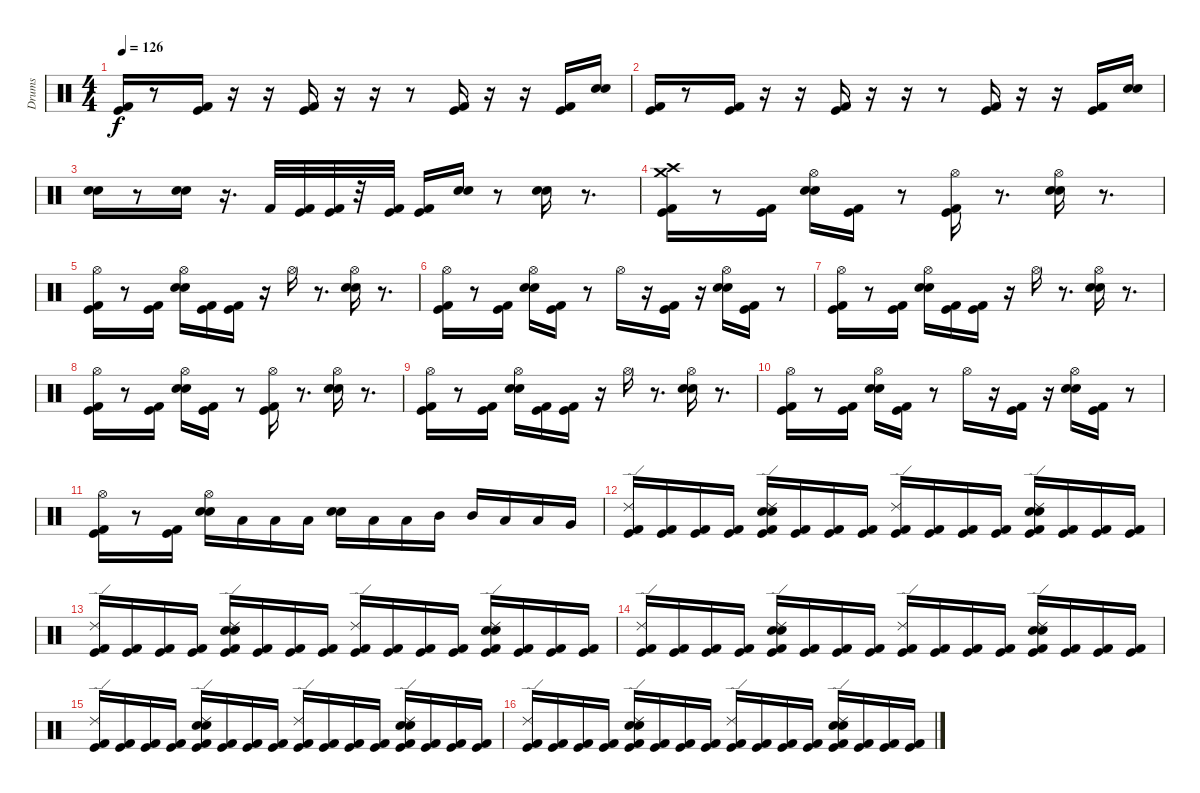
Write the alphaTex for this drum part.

\track ("Drums" "Drums") {instrument percussion}
\staff {score}
\articulation defaults
\ts (4 4)
\tempo 126
\clef neutral
\ks c
("Kick (hit) 2" "Kick (hit)").16{dy f} r.8 ("Kick (hit) 2" "Kick (hit)").16 r.16 r.16 ("Kick (hit) 2" "Kick (hit)").16 r.16 r.16 r.8 ("Kick (hit) 2" "Kick (hit)").16 r.16 r.16 ("Kick (hit) 2" "Kick (hit)").16 ("Electric Snare (hit)" "Snare (hit) 2").16 |
("Kick (hit) 2" "Kick (hit)").16 r.8 ("Kick (hit) 2" "Kick (hit)").16 r.16 r.16 ("Kick (hit) 2" "Kick (hit)").16 r.16 r.16 r.8 ("Kick (hit) 2" "Kick (hit)").16 r.16 r.16 ("Kick (hit) 2" "Kick (hit)").16 ("Electric Snare (hit)" "Snare (hit) 2").16 |
("Electric Snare (hit)" "Snare (hit) 2").16 r.8 ("Electric Snare (hit)" "Snare (hit) 2").16 r.16{d} "Kick (hit) 2".32 ("Kick (hit) 2" "Kick (hit)").32 ("Kick (hit) 2" "Kick (hit)").32 r.32 ("Kick (hit) 2" "Kick (hit)").32 ("Kick (hit) 2" "Kick (hit)").16 ("Electric Snare (hit)" "Snare (hit) 2").16 r.8 ("Electric Snare (hit)" "Snare (hit) 2").16 r.8{d} |
("Crash high (hit)" "Crash medium (hit)" "Kick (hit) 2" "Kick (hit)").16 r.8 ("Kick (hit) 2" "Kick (hit)").16 ("Hi-Hat (open)" "Electric Snare (hit)" "Snare (hit) 2").16 ("Kick (hit) 2" "Kick (hit)").16 r.8 ("Kick (hit) 2" "Kick (hit)" "Hi-Hat (open)").16 r.8{d} ("Electric Snare (hit)" "Snare (hit) 2" "Hi-Hat (open)").16 r.8{d} |
("Kick (hit) 2" "Hi-Hat (open)" "Kick (hit)").16 r.8 ("Kick (hit) 2" "Kick (hit)").16 ("Electric Snare (hit)" "Hi-Hat (open)" "Snare (hit) 2").16 ("Kick (hit) 2" "Kick (hit)").16 ("Kick (hit) 2" "Kick (hit)").16 r.16 "Hi-Hat (open)".16 r.8{d} ("Electric Snare (hit)" "Snare (hit) 2" "Hi-Hat (open)").16 r.8{d} |
("Hi-Hat (open)" "Kick (hit) 2" "Kick (hit)").16 r.8 ("Kick (hit) 2" "Kick (hit)").16 ("Hi-Hat (open)" "Electric Snare (hit)" "Snare (hit) 2").16 ("Kick (hit) 2" "Kick (hit)").16 r.8 "Hi-Hat (open)".16 r.16 ("Kick (hit) 2" "Kick (hit)").16 r.16 ("Hi-Hat (open)" "Electric Snare (hit)" "Snare (hit) 2").16 ("Kick (hit) 2" "Kick (hit)").16 r.8 |
("Kick (hit) 2" "Hi-Hat (open)" "Kick (hit)").16 r.8 ("Kick (hit) 2" "Kick (hit)").16 ("Electric Snare (hit)" "Hi-Hat (open)" "Snare (hit) 2").16 ("Kick (hit) 2" "Kick (hit)").16 ("Kick (hit) 2" "Kick (hit)").16 r.16 "Hi-Hat (open)".16 r.8{d} ("Electric Snare (hit)" "Snare (hit) 2" "Hi-Hat (open)").16 r.8{d} |
("Hi-Hat (open)" "Kick (hit) 2" "Kick (hit)").16 r.8 ("Kick (hit) 2" "Kick (hit)").16 ("Hi-Hat (open)" "Electric Snare (hit)" "Snare (hit) 2").16 ("Kick (hit) 2" "Kick (hit)").16 r.8 ("Kick (hit) 2" "Kick (hit)" "Hi-Hat (open)").16 r.8{d} ("Electric Snare (hit)" "Snare (hit) 2" "Hi-Hat (open)").16 r.8{d} |
("Kick (hit) 2" "Hi-Hat (open)" "Kick (hit)").16 r.8 ("Kick (hit) 2" "Kick (hit)").16 ("Electric Snare (hit)" "Hi-Hat (open)" "Snare (hit) 2").16 ("Kick (hit) 2" "Kick (hit)").16 ("Kick (hit) 2" "Kick (hit)").16 r.16 "Hi-Hat (open)".16 r.8{d} ("Electric Snare (hit)" "Snare (hit) 2" "Hi-Hat (open)").16 r.8{d} |
("Hi-Hat (open)" "Kick (hit) 2" "Kick (hit)").16 r.8 ("Kick (hit) 2" "Kick (hit)").16 ("Hi-Hat (open)" "Electric Snare (hit)" "Snare (hit) 2").16 ("Kick (hit) 2" "Kick (hit)").16 r.8 "Hi-Hat (open)".16 r.16 ("Kick (hit) 2" "Kick (hit)").16 r.16 ("Hi-Hat (open)" "Electric Snare (hit)" "Snare (hit) 2").16 ("Kick (hit) 2" "Kick (hit)").16 r.8 |
("Hi-Hat (open)" "Kick (hit) 2" "Kick (hit)").16 r.8 ("Kick (hit) 2" "Kick (hit)").16 ("Hi-Hat (open)" "Electric Snare (hit)" "Snare (hit) 2").16 "Low Tom (hit)".16 "Low Tom (hit)".16 "Low Tom (hit)".16 ("Electric Snare (hit)" "Snare (hit) 2").16 "Low Tom (hit)".16 "Low Tom (hit)".16 "Mid Tom (hit)".16 "Mid Tom (hit)".16 "Low Tom (hit)".16 "Low Tom (hit)".16 "Very Low Tom (hit)".16 |
("Kick (hit) 2" "Ride (edge) 2" "Kick (hit)").16 ("Kick (hit) 2" "Kick (hit)").16 ("Kick (hit) 2" "Kick (hit)").16 ("Kick (hit) 2" "Kick (hit)").16 ("Snare (hit) 2" "Kick (hit) 2" "Ride (edge) 2" "Electric Snare (hit)" "Kick (hit)").16 ("Kick (hit) 2" "Kick (hit)").16 ("Kick (hit) 2" "Kick (hit)").16 ("Kick (hit) 2" "Kick (hit)").16 ("Kick (hit) 2" "Ride (edge) 2" "Kick (hit)").16 ("Kick (hit) 2" "Kick (hit)").16 ("Kick (hit) 2" "Kick (hit)").16 ("Kick (hit) 2" "Kick (hit)").16 ("Snare (hit) 2" "Kick (hit) 2" "Ride (edge) 2" "Electric Snare (hit)" "Kick (hit)").16 ("Kick (hit) 2" "Kick (hit)").16 ("Kick (hit) 2" "Kick (hit)").16 ("Kick (hit) 2" "Kick (hit)").16 |
("Kick (hit) 2" "Ride (edge) 2" "Kick (hit)").16 ("Kick (hit) 2" "Kick (hit)").16 ("Kick (hit) 2" "Kick (hit)").16 ("Kick (hit) 2" "Kick (hit)").16 ("Snare (hit) 2" "Kick (hit) 2" "Ride (edge) 2" "Electric Snare (hit)" "Kick (hit)").16 ("Kick (hit) 2" "Kick (hit)").16 ("Kick (hit) 2" "Kick (hit)").16 ("Kick (hit) 2" "Kick (hit)").16 ("Kick (hit) 2" "Ride (edge) 2" "Kick (hit)").16 ("Kick (hit) 2" "Kick (hit)").16 ("Kick (hit) 2" "Kick (hit)").16 ("Kick (hit) 2" "Kick (hit)").16 ("Snare (hit) 2" "Kick (hit) 2" "Ride (edge) 2" "Electric Snare (hit)" "Kick (hit)").16 ("Kick (hit) 2" "Kick (hit)").16 ("Kick (hit) 2" "Kick (hit)").16 ("Kick (hit) 2" "Kick (hit)").16 |
("Kick (hit) 2" "Ride (edge) 2" "Kick (hit)").16 ("Kick (hit) 2" "Kick (hit)").16 ("Kick (hit) 2" "Kick (hit)").16 ("Kick (hit) 2" "Kick (hit)").16 ("Snare (hit) 2" "Kick (hit) 2" "Ride (edge) 2" "Electric Snare (hit)" "Kick (hit)").16 ("Kick (hit) 2" "Kick (hit)").16 ("Kick (hit) 2" "Kick (hit)").16 ("Kick (hit) 2" "Kick (hit)").16 ("Kick (hit) 2" "Ride (edge) 2" "Kick (hit)").16 ("Kick (hit) 2" "Kick (hit)").16 ("Kick (hit) 2" "Kick (hit)").16 ("Kick (hit) 2" "Kick (hit)").16 ("Snare (hit) 2" "Kick (hit) 2" "Ride (edge) 2" "Electric Snare (hit)" "Kick (hit)").16 ("Kick (hit) 2" "Kick (hit)").16 ("Kick (hit) 2" "Kick (hit)").16 ("Kick (hit) 2" "Kick (hit)").16 |
("Kick (hit) 2" "Ride (edge) 2" "Kick (hit)").16 ("Kick (hit) 2" "Kick (hit)").16 ("Kick (hit) 2" "Kick (hit)").16 ("Kick (hit) 2" "Kick (hit)").16 ("Snare (hit) 2" "Kick (hit) 2" "Ride (edge) 2" "Electric Snare (hit)" "Kick (hit)").16 ("Kick (hit) 2" "Kick (hit)").16 ("Kick (hit) 2" "Kick (hit)").16 ("Kick (hit) 2" "Kick (hit)").16 ("Kick (hit) 2" "Ride (edge) 2" "Kick (hit)").16 ("Kick (hit) 2" "Kick (hit)").16 ("Kick (hit) 2" "Kick (hit)").16 ("Kick (hit) 2" "Kick (hit)").16 ("Snare (hit) 2" "Kick (hit) 2" "Ride (edge) 2" "Electric Snare (hit)" "Kick (hit)").16 ("Kick (hit) 2" "Kick (hit)").16 ("Kick (hit) 2" "Kick (hit)").16 ("Kick (hit) 2" "Kick (hit)").16 |
("Kick (hit) 2" "Ride (edge) 2" "Kick (hit)").16 ("Kick (hit) 2" "Kick (hit)").16 ("Kick (hit) 2" "Kick (hit)").16 ("Kick (hit) 2" "Kick (hit)").16 ("Snare (hit) 2" "Kick (hit) 2" "Ride (edge) 2" "Electric Snare (hit)" "Kick (hit)").16 ("Kick (hit) 2" "Kick (hit)").16 ("Kick (hit) 2" "Kick (hit)").16 ("Kick (hit) 2" "Kick (hit)").16 ("Kick (hit) 2" "Ride (edge) 2" "Kick (hit)").16 ("Kick (hit) 2" "Kick (hit)").16 ("Kick (hit) 2" "Kick (hit)").16 ("Kick (hit) 2" "Kick (hit)").16 ("Snare (hit) 2" "Kick (hit) 2" "Ride (edge) 2" "Electric Snare (hit)" "Kick (hit)").16 ("Kick (hit) 2" "Kick (hit)").16 ("Kick (hit) 2" "Kick (hit)").16 ("Kick (hit) 2" "Kick (hit)").16
